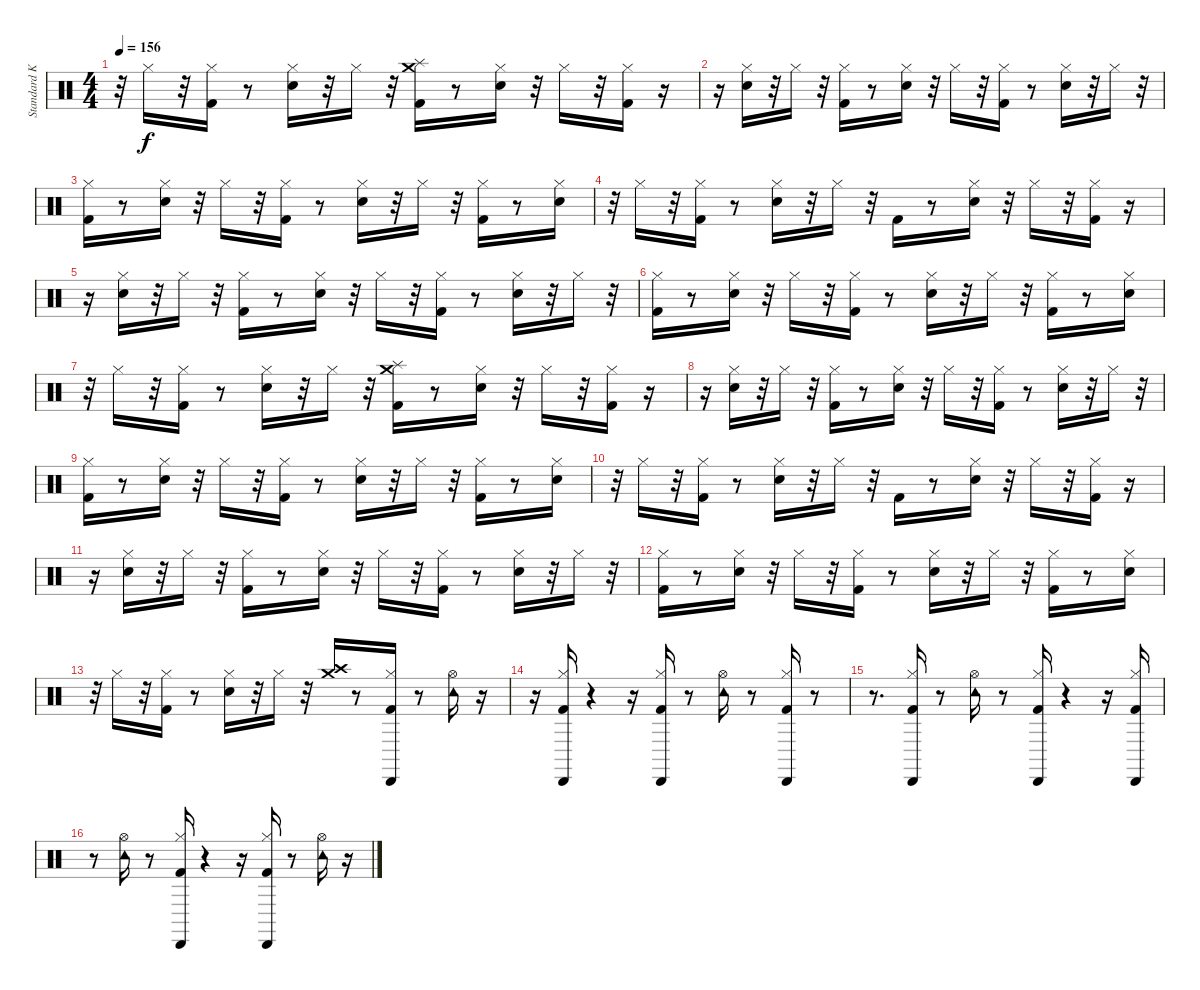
\track ("Standard Kit" "Standard K") {instrument percussion}
\staff {score}
\articulation defaults
\ts (4 4)
\tempo 156
\clef neutral
\ks c
r.32{dy f} "Hi-Hat (closed)".16 r.32 ("Kick (hit) 2" "Hi-Hat (closed)").16 r.8 ("Electric Snare (hit)" "Hi-Hat (closed)").16 r.32 "Hi-Hat (closed)".16 r.32 ("Kick (hit) 2" "Splash (hit)" "Crash medium (hit)").16 r.8 ("Electric Snare (hit)" "Hi-Hat (closed)").16 r.32 "Hi-Hat (closed)".16 r.32 ("Kick (hit) 2" "Hi-Hat (closed)").16 r.16 |
r.16 ("Electric Snare (hit)" "Hi-Hat (closed)").16 r.32 "Hi-Hat (closed)".16 r.32 ("Kick (hit) 2" "Hi-Hat (closed)").16 r.8 ("Electric Snare (hit)" "Hi-Hat (closed)").16 r.32 "Hi-Hat (closed)".16 r.32 ("Kick (hit) 2" "Hi-Hat (closed)").16 r.8 ("Electric Snare (hit)" "Hi-Hat (closed)").16 r.32 "Hi-Hat (closed)".16 r.32 |
("Kick (hit) 2" "Hi-Hat (closed)").16 r.8 ("Electric Snare (hit)" "Hi-Hat (closed)").16 r.32 "Hi-Hat (closed)".16 r.32 ("Kick (hit) 2" "Hi-Hat (closed)").16 r.8 ("Electric Snare (hit)" "Hi-Hat (closed)").16 r.32 "Hi-Hat (closed)".16 r.32 ("Kick (hit) 2" "Hi-Hat (closed)").16 r.8 ("Electric Snare (hit)" "Hi-Hat (closed)").16 |
r.32 "Hi-Hat (closed)".16 r.32 ("Kick (hit) 2" "Hi-Hat (closed)").16 r.8 ("Electric Snare (hit)" "Hi-Hat (closed)").16 r.32 "Hi-Hat (closed)".16 r.32 "Kick (hit) 2".16 r.8 ("Electric Snare (hit)" "Hi-Hat (closed)").16 r.32 "Hi-Hat (closed)".16 r.32 ("Kick (hit) 2" "Hi-Hat (closed)").16 r.16 |
r.16 ("Electric Snare (hit)" "Hi-Hat (closed)").16 r.32 "Hi-Hat (closed)".16 r.32 ("Kick (hit) 2" "Hi-Hat (closed)").16 r.8 ("Electric Snare (hit)" "Hi-Hat (closed)").16 r.32 "Hi-Hat (closed)".16 r.32 ("Kick (hit) 2" "Hi-Hat (closed)").16 r.8 ("Electric Snare (hit)" "Hi-Hat (closed)").16 r.32 "Hi-Hat (closed)".16 r.32 |
("Kick (hit) 2" "Hi-Hat (closed)").16 r.8 ("Electric Snare (hit)" "Hi-Hat (closed)").16 r.32 "Hi-Hat (closed)".16 r.32 ("Kick (hit) 2" "Hi-Hat (closed)").16 r.8 ("Electric Snare (hit)" "Hi-Hat (closed)").16 r.32 "Hi-Hat (closed)".16 r.32 ("Kick (hit) 2" "Hi-Hat (closed)").16 r.8 ("Electric Snare (hit)" "Hi-Hat (closed)").16 |
r.32 "Hi-Hat (closed)".16 r.32 ("Kick (hit) 2" "Hi-Hat (closed)").16 r.8 ("Electric Snare (hit)" "Hi-Hat (closed)").16 r.32 "Hi-Hat (closed)".16 r.32 ("Kick (hit) 2" "Splash (hit)" "Crash medium (hit)").16 r.8 ("Electric Snare (hit)" "Hi-Hat (closed)").16 r.32 "Hi-Hat (closed)".16 r.32 ("Kick (hit) 2" "Hi-Hat (closed)").16 r.16 |
r.16 ("Electric Snare (hit)" "Hi-Hat (closed)").16 r.32 "Hi-Hat (closed)".16 r.32 ("Kick (hit) 2" "Hi-Hat (closed)").16 r.8 ("Electric Snare (hit)" "Hi-Hat (closed)").16 r.32 "Hi-Hat (closed)".16 r.32 ("Kick (hit) 2" "Hi-Hat (closed)").16 r.8 ("Electric Snare (hit)" "Hi-Hat (closed)").16 r.32 "Hi-Hat (closed)".16 r.32 |
("Kick (hit) 2" "Hi-Hat (closed)").16 r.8 ("Electric Snare (hit)" "Hi-Hat (closed)").16 r.32 "Hi-Hat (closed)".16 r.32 ("Kick (hit) 2" "Hi-Hat (closed)").16 r.8 ("Electric Snare (hit)" "Hi-Hat (closed)").16 r.32 "Hi-Hat (closed)".16 r.32 ("Kick (hit) 2" "Hi-Hat (closed)").16 r.8 ("Electric Snare (hit)" "Hi-Hat (closed)").16 |
r.32 "Hi-Hat (closed)".16 r.32 ("Kick (hit) 2" "Hi-Hat (closed)").16 r.8 ("Electric Snare (hit)" "Hi-Hat (closed)").16 r.32 "Hi-Hat (closed)".16 r.32 "Kick (hit) 2".16 r.8 ("Electric Snare (hit)" "Hi-Hat (closed)").16 r.32 "Hi-Hat (closed)".16 r.32 ("Kick (hit) 2" "Hi-Hat (closed)").16 r.16 |
r.16 ("Electric Snare (hit)" "Hi-Hat (closed)").16 r.32 "Hi-Hat (closed)".16 r.32 ("Kick (hit) 2" "Hi-Hat (closed)").16 r.8 ("Electric Snare (hit)" "Hi-Hat (closed)").16 r.32 "Hi-Hat (closed)".16 r.32 ("Kick (hit) 2" "Hi-Hat (closed)").16 r.8 ("Electric Snare (hit)" "Hi-Hat (closed)").16 r.32 "Hi-Hat (closed)".16 r.32 |
("Kick (hit) 2" "Hi-Hat (closed)").16 r.8 ("Electric Snare (hit)" "Hi-Hat (closed)").16 r.32 "Hi-Hat (closed)".16 r.32 ("Kick (hit) 2" "Hi-Hat (closed)").16 r.8 ("Electric Snare (hit)" "Hi-Hat (closed)").16 r.32 "Hi-Hat (closed)".16 r.32 ("Kick (hit) 2" "Hi-Hat (closed)").16 r.8 ("Electric Snare (hit)" "Hi-Hat (closed)").16 |
r.32 "Hi-Hat (closed)".16 r.32 ("Kick (hit) 2" "Hi-Hat (closed)").16 r.8 ("Electric Snare (hit)" "Hi-Hat (closed)").16 r.32 "Hi-Hat (closed)".16 r.32 ("Crash high (hit)" "Crash medium (hit)").16 r.8 ("Kick (hit) 2" "Hi-Hat (closed)" "Cabasa (hit)").16 r.8 ("Hi-Hat (open)" "Tambourine (hit)").16 r.16 |
r.16 ("Kick (hit) 2" "Hi-Hat (closed)" "Cabasa (hit)").16 r.4 r.16 ("Kick (hit) 2" "Hi-Hat (closed)" "Cabasa (hit)").16 r.8 ("Hi-Hat (open)" "Tambourine (hit)").16 r.8 ("Kick (hit) 2" "Hi-Hat (closed)" "Cabasa (hit)").16 r.8 |
r.8{d} ("Kick (hit) 2" "Hi-Hat (closed)" "Cabasa (hit)").16 r.8 ("Hi-Hat (open)" "Tambourine (hit)").16 r.8 ("Kick (hit) 2" "Hi-Hat (closed)" "Cabasa (hit)").16 r.4 r.16 ("Kick (hit) 2" "Hi-Hat (closed)" "Cabasa (hit)").16 |
r.8 ("Hi-Hat (open)" "Tambourine (hit)").16 r.8 ("Kick (hit) 2" "Hi-Hat (closed)" "Cabasa (hit)").16 r.4 r.16 ("Kick (hit) 2" "Hi-Hat (closed)" "Cabasa (hit)").16 r.8 ("Hi-Hat (open)" "Tambourine (hit)").16 r.16
